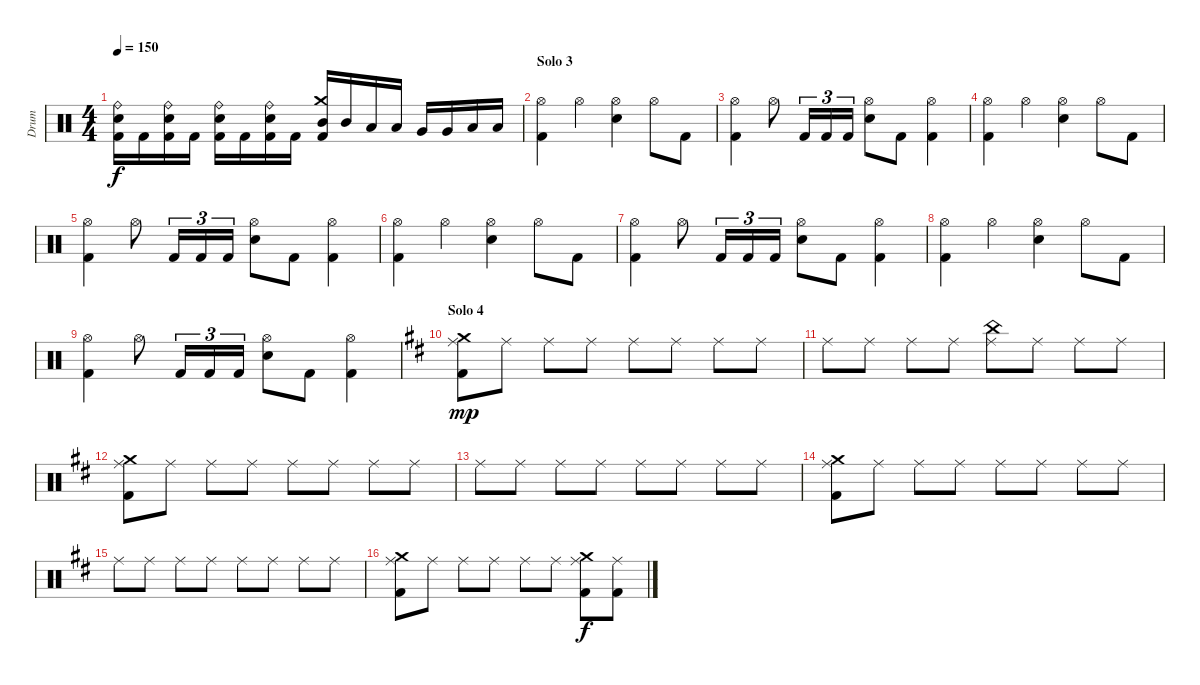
\track ("Drum" "Drum") {instrument percussion}
\staff {score}
\articulation defaults
\ts (4 4)
\tempo 150
\clef neutral
\ks c
("Ride (bell)" "Electric Snare (hit)" "Kick (hit) 2").16{dy f} "Kick (hit) 2".16 ("Ride (bell)" "Electric Snare (hit)" "Kick (hit) 2").16 "Kick (hit) 2".16 ("Ride (bell)" "Electric Snare (hit)" "Kick (hit) 2").16 "Kick (hit) 2".16 ("Ride (bell)" "Electric Snare (hit)" "Kick (hit) 2").16 "Kick (hit) 2".16 ("Crash medium (hit)" "Mid Tom (hit)" "Kick (hit) 2").16 "Mid Tom (hit)".16 "Low Tom (hit)".16 "Low Tom (hit)".16 "Very Low Tom (hit)".16 "Very Low Tom (hit)".16 "Low Floor Tom (hit)".16 "Low Floor Tom (hit)".16 |
\section ("" "Solo 3")
("Kick (hit) 2" "Hi-Hat (open)").4 "Hi-Hat (open)".4 ("Electric Snare (hit)" "Hi-Hat (open)").4 "Hi-Hat (open)".8 "Kick (hit) 2".8 |
("Kick (hit) 2" "Hi-Hat (open)").4 "Hi-Hat (open)".8 "Kick (hit) 2".16{tu (3 2)} "Kick (hit) 2".16{tu (3 2)} "Kick (hit) 2".16{tu (3 2)} ("Electric Snare (hit)" "Hi-Hat (open)").8 "Kick (hit) 2".8 ("Kick (hit) 2" "Hi-Hat (open)").4 |
("Kick (hit) 2" "Hi-Hat (open)").4 "Hi-Hat (open)".4 ("Electric Snare (hit)" "Hi-Hat (open)").4 "Hi-Hat (open)".8 "Kick (hit) 2".8 |
("Kick (hit) 2" "Hi-Hat (open)").4 "Hi-Hat (open)".8 "Kick (hit) 2".16{tu (3 2)} "Kick (hit) 2".16{tu (3 2)} "Kick (hit) 2".16{tu (3 2)} ("Electric Snare (hit)" "Hi-Hat (open)").8 "Kick (hit) 2".8 ("Kick (hit) 2" "Hi-Hat (open)").4 |
("Kick (hit) 2" "Hi-Hat (open)").4 "Hi-Hat (open)".4 ("Electric Snare (hit)" "Hi-Hat (open)").4 "Hi-Hat (open)".8 "Kick (hit) 2".8 |
("Kick (hit) 2" "Hi-Hat (open)").4 "Hi-Hat (open)".8 "Kick (hit) 2".16{tu (3 2)} "Kick (hit) 2".16{tu (3 2)} "Kick (hit) 2".16{tu (3 2)} ("Electric Snare (hit)" "Hi-Hat (open)").8 "Kick (hit) 2".8 ("Kick (hit) 2" "Hi-Hat (open)").4 |
("Kick (hit) 2" "Hi-Hat (open)").4 "Hi-Hat (open)".4 ("Electric Snare (hit)" "Hi-Hat (open)").4 "Hi-Hat (open)".8 "Kick (hit) 2".8 |
("Kick (hit) 2" "Hi-Hat (open)").4 "Hi-Hat (open)".8 "Kick (hit) 2".16{tu (3 2)} "Kick (hit) 2".16{tu (3 2)} "Kick (hit) 2".16{tu (3 2)} ("Electric Snare (hit)" "Hi-Hat (open)").8 "Kick (hit) 2".8 ("Kick (hit) 2" "Hi-Hat (open)").4 |
\section ("" "Solo 4")
\ks d
("Crash medium (hit)" "Ride (middle)" "Kick (hit) 2").8{dy mp} "Ride (middle)".8 "Ride (middle)".8 "Ride (middle)".8 "Ride (middle)".8 "Ride (middle)".8 "Ride (middle)".8 "Ride (middle)".8 |
"Ride (middle)".8 "Ride (middle)".8 "Ride (middle)".8 "Ride (middle)".8 ("China (hit)" "Ride (middle)").8 "Ride (middle)".8 "Ride (middle)".8 "Ride (middle)".8 |
("Crash medium (hit)" "Ride (middle)" "Kick (hit) 2").8 "Ride (middle)".8 "Ride (middle)".8 "Ride (middle)".8 "Ride (middle)".8 "Ride (middle)".8 "Ride (middle)".8 "Ride (middle)".8 |
"Ride (middle)".8 "Ride (middle)".8 "Ride (middle)".8 "Ride (middle)".8 "Ride (middle)".8 "Ride (middle)".8 "Ride (middle)".8 "Ride (middle)".8 |
("Crash medium (hit)" "Ride (middle)" "Kick (hit) 2").8 "Ride (middle)".8 "Ride (middle)".8 "Ride (middle)".8 "Ride (middle)".8 "Ride (middle)".8 "Ride (middle)".8 "Ride (middle)".8 |
"Ride (middle)".8 "Ride (middle)".8 "Ride (middle)".8 "Ride (middle)".8 "Ride (middle)".8 "Ride (middle)".8 "Ride (middle)".8 "Ride (middle)".8 |
("Crash medium (hit)" "Ride (middle)" "Kick (hit) 2").8 "Ride (middle)".8 "Ride (middle)".8 "Ride (middle)".8 "Ride (middle)".8 "Ride (middle)".8 ("Crash medium (hit)" "Ride (middle)" "Kick (hit) 2").8{dy f} ("Ride (middle)" "Kick (hit) 2").8
